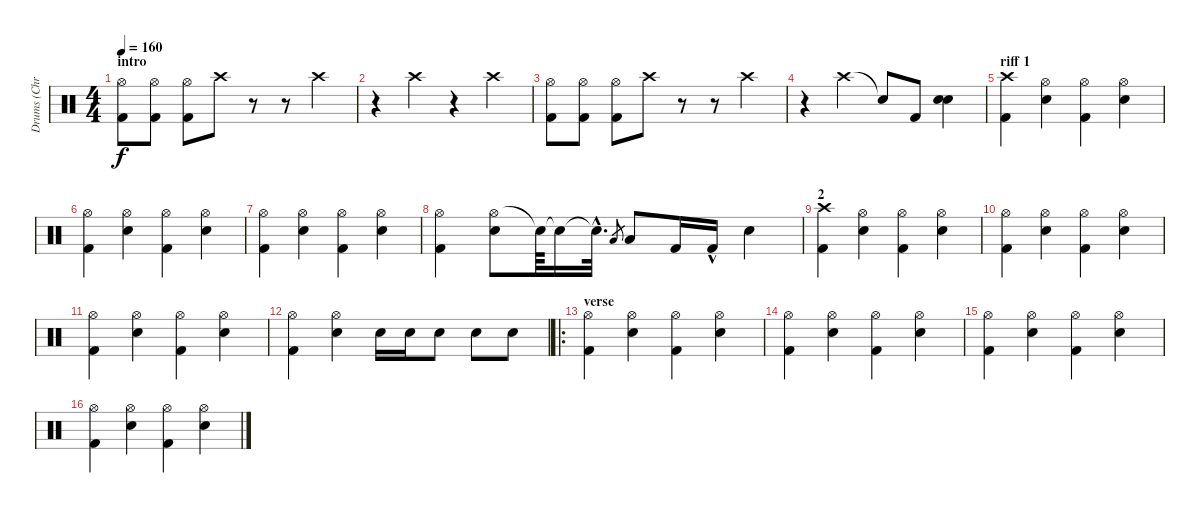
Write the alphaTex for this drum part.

\track ("Drums (Chris Efthimiadis)" "Drums (Chr") {instrument percussion}
\staff {score}
\articulation defaults
\ts (4 4)
\section ("" "intro")
\tempo 160
\clef neutral
\ks c
("Hi-Hat (open)" "Kick (hit) 2").8{dy f} ("Hi-Hat (open)" "Kick (hit) 2").8 ("Hi-Hat (open)" "Kick (hit) 2").8 "Crash high (hit)".8 r.8 r.8 "Crash high (hit)".4 |
r.4 "Crash high (hit)".4 r.4 "Crash high (hit)".4 |
("Hi-Hat (open)" "Kick (hit) 2").8 ("Hi-Hat (open)" "Kick (hit) 2").8 ("Hi-Hat (open)" "Kick (hit) 2").8 "Crash high (hit)".8 r.8 r.8 "Crash high (hit)".4 |
r.4 "Crash high (hit)".4 "Snare (hit)"{t}.8 "Kick (hit) 2".8 ("Snare (hit) 2" "Snare (hit) 2").4 |
\section ("" "riff 1")
("Crash high (hit)" "Kick (hit) 2").4 ("Hi-Hat (open)" "Snare (hit) 2").4 ("Hi-Hat (open)" "Kick (hit) 2").4 ("Hi-Hat (open)" "Snare (hit) 2").4 |
("Hi-Hat (open)" "Kick (hit) 2").4 ("Hi-Hat (open)" "Snare (hit) 2").4 ("Hi-Hat (open)" "Kick (hit) 2").4 ("Hi-Hat (open)" "Snare (hit) 2").4 |
("Hi-Hat (open)" "Kick (hit) 2").4 ("Hi-Hat (open)" "Snare (hit) 2").4 ("Hi-Hat (open)" "Kick (hit) 2").4 ("Hi-Hat (open)" "Snare (hit) 2").4 |
("Hi-Hat (open)" "Kick (hit) 2").4 ("Hi-Hat (open)" "Snare (hit) 2").8 "Snare (hit)"{t}.64 "Snare (hit)"{t}.16 "Snare (hit)"{hac t}.32{d} "Low Tom (hit)".8{gr} "Low Tom (hit)".8 "Kick (hit) 2".16 "Kick (hit) 2"{hac}.16 "Snare (hit) 2".4{volume 0} |
\section ("" "2")
("Crash high (hit)" "Kick (hit) 2").4{volume 16} ("Hi-Hat (open)" "Snare (hit) 2").4 ("Hi-Hat (open)" "Kick (hit) 2").4 ("Hi-Hat (open)" "Snare (hit) 2").4 |
("Hi-Hat (open)" "Kick (hit) 2").4 ("Hi-Hat (open)" "Snare (hit) 2").4 ("Hi-Hat (open)" "Kick (hit) 2").4 ("Hi-Hat (open)" "Snare (hit) 2").4 |
("Hi-Hat (open)" "Kick (hit) 2").4 ("Hi-Hat (open)" "Snare (hit) 2").4 ("Hi-Hat (open)" "Kick (hit) 2").4 ("Hi-Hat (open)" "Snare (hit) 2").4 |
("Hi-Hat (open)" "Kick (hit) 2").4 ("Hi-Hat (open)" "Snare (hit) 2").4 "Snare (hit) 2".16 "Snare (hit) 2".16 "Snare (hit) 2".8 "Snare (hit) 2".8 "Snare (hit) 2".8 |
\ro
\section ("" "verse")
("Hi-Hat (open)" "Kick (hit) 2").4 ("Hi-Hat (open)" "Snare (hit) 2").4 ("Hi-Hat (open)" "Kick (hit) 2").4 ("Hi-Hat (open)" "Snare (hit) 2").4 |
("Hi-Hat (open)" "Kick (hit) 2").4 ("Hi-Hat (open)" "Snare (hit) 2").4 ("Hi-Hat (open)" "Kick (hit) 2").4 ("Hi-Hat (open)" "Snare (hit) 2").4 |
("Hi-Hat (open)" "Kick (hit) 2").4 ("Hi-Hat (open)" "Snare (hit) 2").4 ("Hi-Hat (open)" "Kick (hit) 2").4 ("Hi-Hat (open)" "Snare (hit) 2").4 |
("Hi-Hat (open)" "Kick (hit) 2").4 ("Hi-Hat (open)" "Snare (hit) 2").4 ("Hi-Hat (open)" "Kick (hit) 2").4 ("Hi-Hat (open)" "Snare (hit) 2").4
